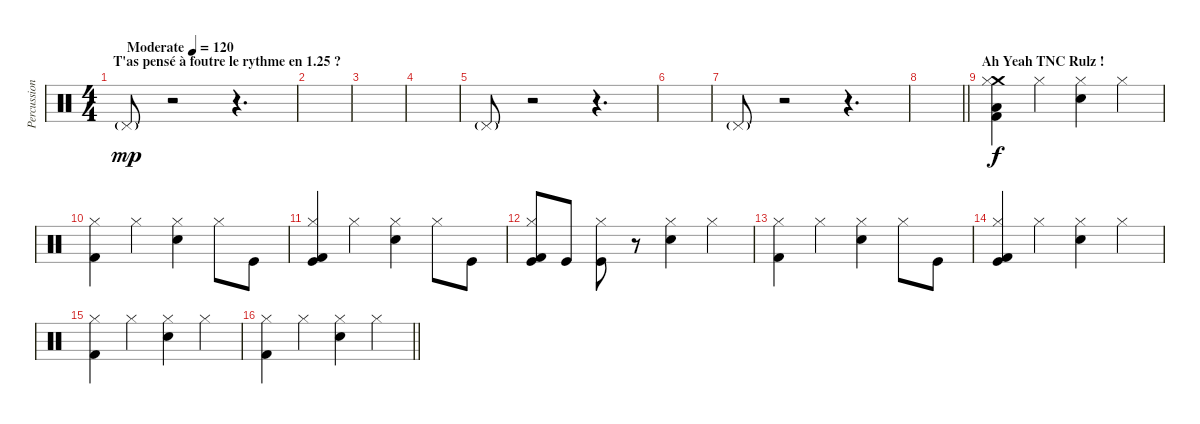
\track ("Percussions" "Percussion") {instrument percussion}
\staff {score}
\articulation defaults
\ts (4 4)
\section ("" "T'as pensé à foutre le rythme en 1.25 ?")
\tempo (120 "Moderate")
\clef neutral
\ks c "Pedal Hi-Hat (hit)"{g}.8{dy mp}
r.2 r.4{d} |
|
|
|
"Pedal Hi-Hat (hit)"{g}.8 r.2 r.4{d} |
|
"Pedal Hi-Hat (hit)"{g}.8 r.2 r.4{d} |
\barLineRight lightlight
|
\section ("" "Ah Yeah TNC Rulz !")
("Kick (hit) 2" "Crash medium (hit)" "Low Tom (hit)" "Hi-Hat (closed)").4{dy f} "Hi-Hat (closed)".4 ("Electric Snare (hit)" "Hi-Hat (closed)").4 "Hi-Hat (closed)".4 |
("Kick (hit) 2" "Hi-Hat (closed)").4 "Hi-Hat (closed)".4 ("Electric Snare (hit)" "Hi-Hat (closed)").4 "Hi-Hat (closed)".8 "Kick (hit)".8 |
("Kick (hit) 2" "Kick (hit)" "Hi-Hat (closed)").4 "Hi-Hat (closed)".4 ("Electric Snare (hit)" "Hi-Hat (closed)").4 "Hi-Hat (closed)".8 "Kick (hit)".8 |
("Kick (hit) 2" "Kick (hit)" "Hi-Hat (closed)").8 "Kick (hit)".8 ("Kick (hit)" "Hi-Hat (closed)").8 r.8 ("Electric Snare (hit)" "Hi-Hat (closed)").4 "Hi-Hat (closed)".4 |
("Kick (hit) 2" "Hi-Hat (closed)").4 "Hi-Hat (closed)".4 ("Electric Snare (hit)" "Hi-Hat (closed)").4 "Hi-Hat (closed)".8 "Kick (hit)".8 |
("Kick (hit) 2" "Kick (hit)" "Hi-Hat (closed)").4 "Hi-Hat (closed)".4 ("Electric Snare (hit)" "Hi-Hat (closed)").4 "Hi-Hat (closed)".4 |
("Kick (hit) 2" "Hi-Hat (closed)").4 "Hi-Hat (closed)".4 ("Electric Snare (hit)" "Hi-Hat (closed)").4 "Hi-Hat (closed)".4 |
\barLineRight lightlight
("Kick (hit) 2" "Hi-Hat (closed)").4 "Hi-Hat (closed)".4 ("Electric Snare (hit)" "Hi-Hat (closed)").4 "Hi-Hat (closed)".4
